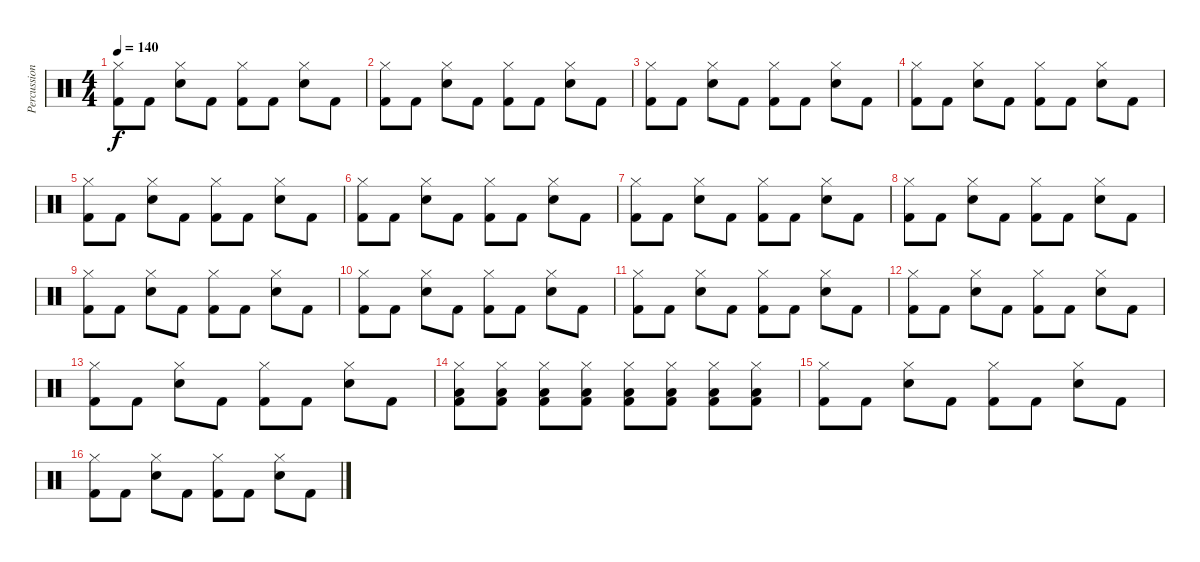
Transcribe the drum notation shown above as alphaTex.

\track ("Percussion" "Percussion") {instrument percussion}
\staff {score}
\articulation defaults
\ts (4 4)
\tempo 140
\clef neutral
\ks c
("Hi-Hat (closed)" "Kick (hit) 2").8{dy f} "Kick (hit) 2".8 ("Electric Snare (hit)" "Hi-Hat (closed)").8 "Kick (hit) 2".8 ("Hi-Hat (closed)" "Kick (hit) 2").8 "Kick (hit) 2".8 ("Electric Snare (hit)" "Hi-Hat (closed)").8 "Kick (hit) 2".8 |
("Hi-Hat (closed)" "Kick (hit) 2").8 "Kick (hit) 2".8 ("Electric Snare (hit)" "Hi-Hat (closed)").8 "Kick (hit) 2".8 ("Hi-Hat (closed)" "Kick (hit) 2").8 "Kick (hit) 2".8 ("Electric Snare (hit)" "Hi-Hat (closed)").8 "Kick (hit) 2".8 |
("Hi-Hat (closed)" "Kick (hit) 2").8 "Kick (hit) 2".8 ("Electric Snare (hit)" "Hi-Hat (closed)").8 "Kick (hit) 2".8 ("Hi-Hat (closed)" "Kick (hit) 2").8 "Kick (hit) 2".8 ("Electric Snare (hit)" "Hi-Hat (closed)").8 "Kick (hit) 2".8 |
("Hi-Hat (closed)" "Kick (hit) 2").8 "Kick (hit) 2".8 ("Electric Snare (hit)" "Hi-Hat (closed)").8 "Kick (hit) 2".8 ("Hi-Hat (closed)" "Kick (hit) 2").8 "Kick (hit) 2".8 ("Electric Snare (hit)" "Hi-Hat (closed)").8 "Kick (hit) 2".8 |
("Hi-Hat (closed)" "Kick (hit) 2").8 "Kick (hit) 2".8 ("Electric Snare (hit)" "Hi-Hat (closed)").8 "Kick (hit) 2".8 ("Hi-Hat (closed)" "Kick (hit) 2").8 "Kick (hit) 2".8 ("Electric Snare (hit)" "Hi-Hat (closed)").8 "Kick (hit) 2".8 |
("Hi-Hat (closed)" "Kick (hit) 2").8 "Kick (hit) 2".8 ("Electric Snare (hit)" "Hi-Hat (closed)").8 "Kick (hit) 2".8 ("Hi-Hat (closed)" "Kick (hit) 2").8 "Kick (hit) 2".8 ("Electric Snare (hit)" "Hi-Hat (closed)").8 "Kick (hit) 2".8 |
("Hi-Hat (closed)" "Kick (hit) 2").8 "Kick (hit) 2".8 ("Electric Snare (hit)" "Hi-Hat (closed)").8 "Kick (hit) 2".8 ("Hi-Hat (closed)" "Kick (hit) 2").8 "Kick (hit) 2".8 ("Electric Snare (hit)" "Hi-Hat (closed)").8 "Kick (hit) 2".8 |
("Hi-Hat (closed)" "Kick (hit) 2").8 "Kick (hit) 2".8 ("Electric Snare (hit)" "Hi-Hat (closed)").8 "Kick (hit) 2".8 ("Hi-Hat (closed)" "Kick (hit) 2").8 "Kick (hit) 2".8 ("Electric Snare (hit)" "Hi-Hat (closed)").8 "Kick (hit) 2".8 |
("Hi-Hat (closed)" "Kick (hit) 2").8 "Kick (hit) 2".8 ("Electric Snare (hit)" "Hi-Hat (closed)").8 "Kick (hit) 2".8 ("Hi-Hat (closed)" "Kick (hit) 2").8 "Kick (hit) 2".8 ("Electric Snare (hit)" "Hi-Hat (closed)").8 "Kick (hit) 2".8 |
("Hi-Hat (closed)" "Kick (hit) 2").8 "Kick (hit) 2".8 ("Electric Snare (hit)" "Hi-Hat (closed)").8 "Kick (hit) 2".8 ("Hi-Hat (closed)" "Kick (hit) 2").8 "Kick (hit) 2".8 ("Electric Snare (hit)" "Hi-Hat (closed)").8 "Kick (hit) 2".8 |
("Hi-Hat (closed)" "Kick (hit) 2").8 "Kick (hit) 2".8 ("Electric Snare (hit)" "Hi-Hat (closed)").8 "Kick (hit) 2".8 ("Hi-Hat (closed)" "Kick (hit) 2").8 "Kick (hit) 2".8 ("Electric Snare (hit)" "Hi-Hat (closed)").8 "Kick (hit) 2".8 |
("Hi-Hat (closed)" "Kick (hit) 2").8 "Kick (hit) 2".8 ("Electric Snare (hit)" "Hi-Hat (closed)").8 "Kick (hit) 2".8 ("Hi-Hat (closed)" "Kick (hit) 2").8 "Kick (hit) 2".8 ("Electric Snare (hit)" "Hi-Hat (closed)").8 "Kick (hit) 2".8 |
("Hi-Hat (closed)" "Kick (hit) 2").8 "Kick (hit) 2".8 ("Electric Snare (hit)" "Hi-Hat (closed)").8 "Kick (hit) 2".8 ("Hi-Hat (closed)" "Kick (hit) 2").8 "Kick (hit) 2".8 ("Electric Snare (hit)" "Hi-Hat (closed)").8 "Kick (hit) 2".8 |
("Hi-Hat (closed)" "Kick (hit) 2" "Low Floor Tom (hit)").8 ("Hi-Hat (closed)" "Kick (hit) 2" "Low Floor Tom (hit)").8 ("Hi-Hat (closed)" "Kick (hit) 2" "Low Floor Tom (hit)").8 ("Hi-Hat (closed)" "Kick (hit) 2" "Low Floor Tom (hit)").8 ("Hi-Hat (closed)" "Kick (hit) 2" "Low Floor Tom (hit)").8 ("Hi-Hat (closed)" "Kick (hit) 2" "Low Floor Tom (hit)").8 ("Hi-Hat (closed)" "Kick (hit) 2" "Low Floor Tom (hit)").8 ("Hi-Hat (closed)" "Kick (hit) 2" "Low Floor Tom (hit)").8 |
("Hi-Hat (closed)" "Kick (hit) 2").8 "Kick (hit) 2".8 ("Electric Snare (hit)" "Hi-Hat (closed)").8 "Kick (hit) 2".8 ("Hi-Hat (closed)" "Kick (hit) 2").8 "Kick (hit) 2".8 ("Electric Snare (hit)" "Hi-Hat (closed)").8 "Kick (hit) 2".8 |
("Hi-Hat (closed)" "Kick (hit) 2").8 "Kick (hit) 2".8 ("Electric Snare (hit)" "Hi-Hat (closed)").8 "Kick (hit) 2".8 ("Hi-Hat (closed)" "Kick (hit) 2").8 "Kick (hit) 2".8 ("Electric Snare (hit)" "Hi-Hat (closed)").8 "Kick (hit) 2".8
